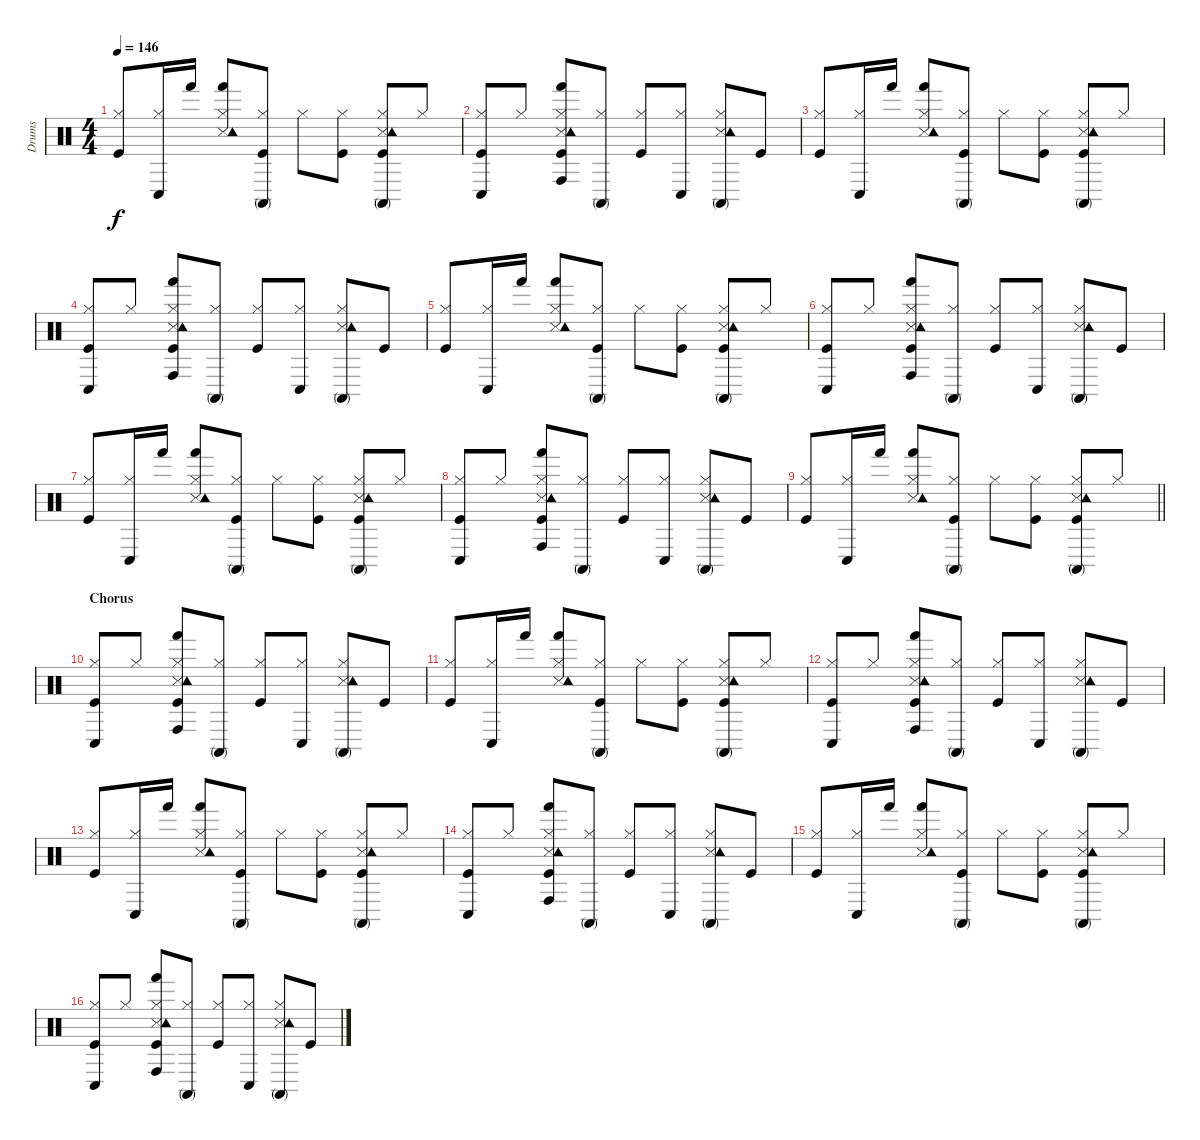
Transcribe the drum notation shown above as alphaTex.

\track ("Drums" "Drums") {instrument percussion}
\staff {score}
\articulation defaults
\ts (4 4)
\tempo 146
\clef neutral
\ks c
("Kick (hit)" "Hi-Hat (closed)").8{dy f} ("Hi-Hat (closed)" "Conga low (hit)").16 "Hand (hit)".16 ("Snare (side stick) 3" "Hi-Hat (closed)" "Tambourine (hit)" "Hand (hit)").8 ("Kick (hit)" "Hi-Hat (closed)" "Conga high (mute)").8 "Hi-Hat (closed)".8 ("Kick (hit)" "Hi-Hat (closed)").8 ("Kick (hit)" "Snare (side stick) 3" "Hi-Hat (closed)" "Tambourine (hit)" "Conga high (mute)").8 "Hi-Hat (closed)".8 |
("Kick (hit)" "Hi-Hat (closed)" "Conga low (hit)").8 "Hi-Hat (closed)".8 ("Kick (hit)" "Snare (side stick) 3" "Hi-Hat (closed)" "Tambourine (hit)" "Hand (hit)" "Conga high (hit)").8 ("Hi-Hat (closed)" "Conga high (mute)").8 ("Kick (hit)" "Hi-Hat (closed)").8 ("Hi-Hat (closed)" "Conga low (hit)").8 ("Snare (side stick) 3" "Hi-Hat (closed)" "Tambourine (hit)" "Conga high (mute)").8 "Kick (hit)".8 |
("Kick (hit)" "Hi-Hat (closed)").8 ("Hi-Hat (closed)" "Conga low (hit)").16 "Hand (hit)".16 ("Snare (side stick) 3" "Hi-Hat (closed)" "Tambourine (hit)" "Hand (hit)").8 ("Kick (hit)" "Hi-Hat (closed)" "Conga high (mute)").8 "Hi-Hat (closed)".8 ("Kick (hit)" "Hi-Hat (closed)").8 ("Kick (hit)" "Snare (side stick) 3" "Hi-Hat (closed)" "Tambourine (hit)" "Conga high (mute)").8 "Hi-Hat (closed)".8 |
("Kick (hit)" "Hi-Hat (closed)" "Conga low (hit)").8 "Hi-Hat (closed)".8 ("Kick (hit)" "Snare (side stick) 3" "Hi-Hat (closed)" "Tambourine (hit)" "Hand (hit)" "Conga high (hit)").8 ("Hi-Hat (closed)" "Conga high (mute)").8 ("Kick (hit)" "Hi-Hat (closed)").8 ("Hi-Hat (closed)" "Conga low (hit)").8 ("Snare (side stick) 3" "Hi-Hat (closed)" "Tambourine (hit)" "Conga high (mute)").8 "Kick (hit)".8 |
("Kick (hit)" "Hi-Hat (closed)").8 ("Hi-Hat (closed)" "Conga low (hit)").16 "Hand (hit)".16 ("Snare (side stick) 3" "Hi-Hat (closed)" "Tambourine (hit)" "Hand (hit)").8 ("Kick (hit)" "Hi-Hat (closed)" "Conga high (mute)").8 "Hi-Hat (closed)".8 ("Kick (hit)" "Hi-Hat (closed)").8 ("Kick (hit)" "Snare (side stick) 3" "Hi-Hat (closed)" "Tambourine (hit)" "Conga high (mute)").8 "Hi-Hat (closed)".8 |
("Kick (hit)" "Hi-Hat (closed)" "Conga low (hit)").8 "Hi-Hat (closed)".8 ("Kick (hit)" "Snare (side stick) 3" "Hi-Hat (closed)" "Tambourine (hit)" "Hand (hit)" "Conga high (hit)").8 ("Hi-Hat (closed)" "Conga high (mute)").8 ("Kick (hit)" "Hi-Hat (closed)").8 ("Hi-Hat (closed)" "Conga low (hit)").8 ("Snare (side stick) 3" "Hi-Hat (closed)" "Tambourine (hit)" "Conga high (mute)").8 "Kick (hit)".8 |
("Kick (hit)" "Hi-Hat (closed)").8 ("Hi-Hat (closed)" "Conga low (hit)").16 "Hand (hit)".16 ("Snare (side stick) 3" "Hi-Hat (closed)" "Tambourine (hit)" "Hand (hit)").8 ("Kick (hit)" "Hi-Hat (closed)" "Conga high (mute)").8 "Hi-Hat (closed)".8 ("Kick (hit)" "Hi-Hat (closed)").8 ("Kick (hit)" "Snare (side stick) 3" "Hi-Hat (closed)" "Tambourine (hit)" "Conga high (mute)").8 "Hi-Hat (closed)".8 |
("Kick (hit)" "Hi-Hat (closed)" "Conga low (hit)").8 "Hi-Hat (closed)".8 ("Kick (hit)" "Snare (side stick) 3" "Hi-Hat (closed)" "Tambourine (hit)" "Hand (hit)" "Conga high (hit)").8 ("Hi-Hat (closed)" "Conga high (mute)").8 ("Kick (hit)" "Hi-Hat (closed)").8 ("Hi-Hat (closed)" "Conga low (hit)").8 ("Snare (side stick) 3" "Hi-Hat (closed)" "Tambourine (hit)" "Conga high (mute)").8 "Kick (hit)".8 |
\barLineRight lightlight
("Kick (hit)" "Hi-Hat (closed)").8 ("Hi-Hat (closed)" "Conga low (hit)").16 "Hand (hit)".16 ("Snare (side stick) 3" "Hi-Hat (closed)" "Tambourine (hit)" "Hand (hit)").8 ("Kick (hit)" "Hi-Hat (closed)" "Conga high (mute)").8 "Hi-Hat (closed)".8 ("Kick (hit)" "Hi-Hat (closed)").8 ("Kick (hit)" "Snare (side stick) 3" "Hi-Hat (closed)" "Tambourine (hit)" "Conga high (mute)").8 "Hi-Hat (closed)".8 |
\section ("" "Chorus")
("Kick (hit)" "Hi-Hat (closed)" "Conga low (hit)").8 "Hi-Hat (closed)".8 ("Kick (hit)" "Snare (side stick) 3" "Hi-Hat (closed)" "Tambourine (hit)" "Hand (hit)" "Conga high (hit)").8 ("Hi-Hat (closed)" "Conga high (mute)").8 ("Kick (hit)" "Hi-Hat (closed)").8 ("Hi-Hat (closed)" "Conga low (hit)").8 ("Snare (side stick) 3" "Hi-Hat (closed)" "Tambourine (hit)" "Conga high (mute)").8 "Kick (hit)".8 |
("Kick (hit)" "Hi-Hat (closed)").8 ("Hi-Hat (closed)" "Conga low (hit)").16 "Hand (hit)".16 ("Snare (side stick) 3" "Hi-Hat (closed)" "Tambourine (hit)" "Hand (hit)").8 ("Kick (hit)" "Hi-Hat (closed)" "Conga high (mute)").8 "Hi-Hat (closed)".8 ("Kick (hit)" "Hi-Hat (closed)").8 ("Kick (hit)" "Snare (side stick) 3" "Hi-Hat (closed)" "Tambourine (hit)" "Conga high (mute)").8 "Hi-Hat (closed)".8 |
("Kick (hit)" "Hi-Hat (closed)" "Conga low (hit)").8 "Hi-Hat (closed)".8 ("Kick (hit)" "Snare (side stick) 3" "Hi-Hat (closed)" "Tambourine (hit)" "Hand (hit)" "Conga high (hit)").8 ("Hi-Hat (closed)" "Conga high (mute)").8 ("Kick (hit)" "Hi-Hat (closed)").8 ("Hi-Hat (closed)" "Conga low (hit)").8 ("Snare (side stick) 3" "Hi-Hat (closed)" "Tambourine (hit)" "Conga high (mute)").8 "Kick (hit)".8 |
("Kick (hit)" "Hi-Hat (closed)").8 ("Hi-Hat (closed)" "Conga low (hit)").16 "Hand (hit)".16 ("Snare (side stick) 3" "Hi-Hat (closed)" "Tambourine (hit)" "Hand (hit)").8 ("Kick (hit)" "Hi-Hat (closed)" "Conga high (mute)").8 "Hi-Hat (closed)".8 ("Kick (hit)" "Hi-Hat (closed)").8 ("Kick (hit)" "Snare (side stick) 3" "Hi-Hat (closed)" "Tambourine (hit)" "Conga high (mute)").8 "Hi-Hat (closed)".8 |
("Kick (hit)" "Hi-Hat (closed)" "Conga low (hit)").8 "Hi-Hat (closed)".8 ("Kick (hit)" "Snare (side stick) 3" "Hi-Hat (closed)" "Tambourine (hit)" "Hand (hit)" "Conga high (hit)").8 ("Hi-Hat (closed)" "Conga high (mute)").8 ("Kick (hit)" "Hi-Hat (closed)").8 ("Hi-Hat (closed)" "Conga low (hit)").8 ("Snare (side stick) 3" "Hi-Hat (closed)" "Tambourine (hit)" "Conga high (mute)").8 "Kick (hit)".8 |
("Kick (hit)" "Hi-Hat (closed)").8 ("Hi-Hat (closed)" "Conga low (hit)").16 "Hand (hit)".16 ("Snare (side stick) 3" "Hi-Hat (closed)" "Tambourine (hit)" "Hand (hit)").8 ("Kick (hit)" "Hi-Hat (closed)" "Conga high (mute)").8 "Hi-Hat (closed)".8 ("Kick (hit)" "Hi-Hat (closed)").8 ("Kick (hit)" "Snare (side stick) 3" "Hi-Hat (closed)" "Tambourine (hit)" "Conga high (mute)").8 "Hi-Hat (closed)".8 |
("Kick (hit)" "Hi-Hat (closed)" "Conga low (hit)").8 "Hi-Hat (closed)".8 ("Kick (hit)" "Snare (side stick) 3" "Hi-Hat (closed)" "Tambourine (hit)" "Hand (hit)" "Conga high (hit)").8 ("Hi-Hat (closed)" "Conga high (mute)").8 ("Kick (hit)" "Hi-Hat (closed)").8 ("Hi-Hat (closed)" "Conga low (hit)").8 ("Snare (side stick) 3" "Hi-Hat (closed)" "Tambourine (hit)" "Conga high (mute)").8 "Kick (hit)".8
